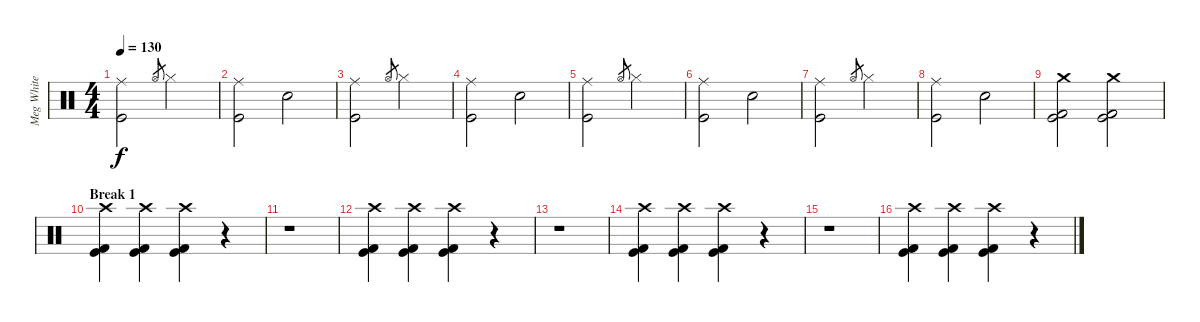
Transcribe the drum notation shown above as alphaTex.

\track ("Meg White (Drums)" "Meg White ") {instrument percussion}
\staff {score}
\articulation defaults
\ts (4 4)
\tempo 130
\clef neutral
\ks c
("Kick (hit)" "Ride (middle)").2{dy f} "Hi-Hat (open)"{h}.8{gr} "Hi-Hat (closed)".2 |
("Kick (hit)" "Ride (middle)").2 "Snare (hit) 2".2 |
("Kick (hit)" "Ride (middle)").2 "Hi-Hat (open)"{h}.8{gr} "Hi-Hat (closed)".2 |
("Kick (hit)" "Ride (middle)").2 "Snare (hit) 2".2 |
("Kick (hit)" "Ride (middle)").2 "Hi-Hat (open)"{h}.8{gr} "Hi-Hat (closed)".2 |
("Kick (hit)" "Ride (middle)").2 "Snare (hit) 2".2 |
("Kick (hit)" "Ride (middle)").2 "Hi-Hat (open)"{h}.8{gr} "Hi-Hat (closed)".2 |
("Kick (hit)" "Ride (middle)").2 "Snare (hit) 2".2 |
("Kick (hit)" "Kick (hit) 2" "Crash medium (hit)").2 ("Kick (hit)" "Kick (hit) 2" "Crash medium (hit)").2 |
\section ("" "Break 1")
("Kick (hit)" "Kick (hit) 2" "Crash high (hit)").4 ("Kick (hit)" "Kick (hit) 2" "Crash high (hit)").4 ("Kick (hit)" "Kick (hit) 2" "Crash high (hit)").4 r.4 |
r.1 |
("Kick (hit)" "Kick (hit) 2" "Crash high (hit)").4 ("Kick (hit)" "Kick (hit) 2" "Crash high (hit)").4 ("Kick (hit)" "Kick (hit) 2" "Crash high (hit)").4 r.4 |
r.1 |
("Kick (hit)" "Kick (hit) 2" "Crash high (hit)").4 ("Kick (hit)" "Kick (hit) 2" "Crash high (hit)").4 ("Kick (hit)" "Kick (hit) 2" "Crash high (hit)").4 r.4 |
r.1 |
("Kick (hit)" "Kick (hit) 2" "Crash high (hit)").4 ("Kick (hit)" "Kick (hit) 2" "Crash high (hit)").4 ("Kick (hit)" "Kick (hit) 2" "Crash high (hit)").4 r.4
